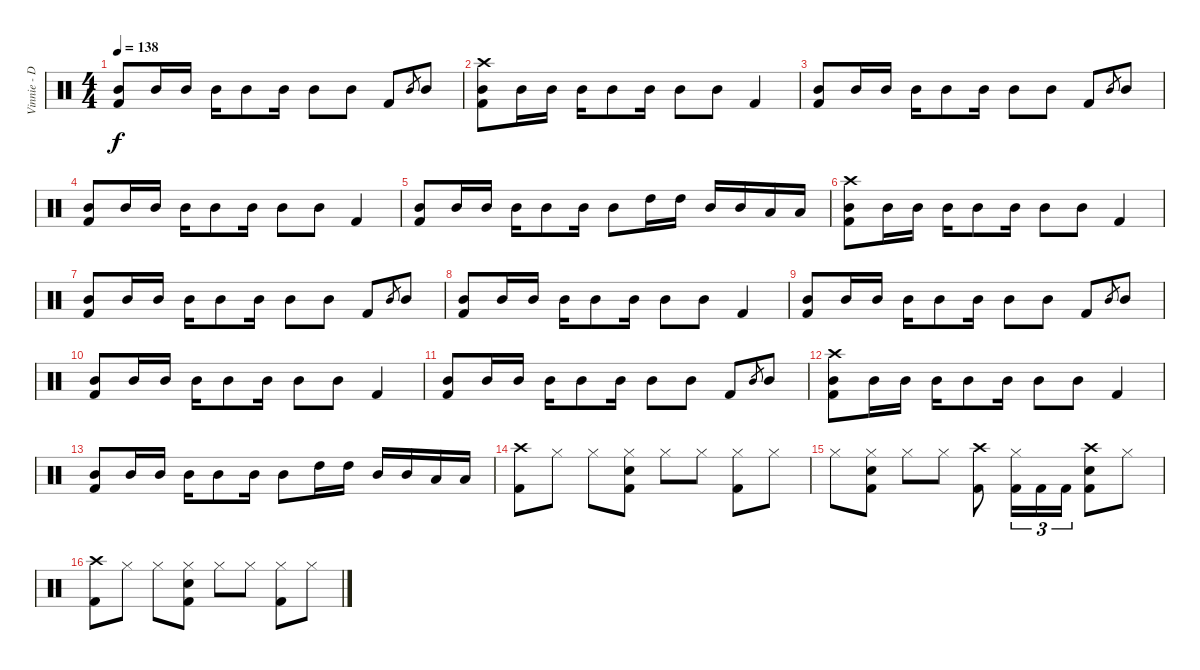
\track ("Vinnie - Drums" "Vinnie - D") {instrument percussion}
\staff {score}
\articulation defaults
\ts (4 4)
\tempo 138
\clef neutral
\ks c
("Mid Tom (hit)" "Kick (hit) 2").8{dy f} "Mid Tom (hit)".16 "Mid Tom (hit)".16 "Mid Tom (hit)".16 "Mid Tom (hit)".8 "Mid Tom (hit)".16 "Mid Tom (hit)".8 "Mid Tom (hit)".8 "Kick (hit) 2".8 "Mid Tom (hit)".8{gr} "Mid Tom (hit)".8 |
("Crash high (hit)" "Mid Tom (hit)" "Kick (hit) 2").8 "Mid Tom (hit)".16 "Mid Tom (hit)".16 "Mid Tom (hit)".16 "Mid Tom (hit)".8 "Mid Tom (hit)".16 "Mid Tom (hit)".8 "Mid Tom (hit)".8 "Kick (hit) 2".4 |
("Mid Tom (hit)" "Kick (hit) 2").8 "Mid Tom (hit)".16 "Mid Tom (hit)".16 "Mid Tom (hit)".16 "Mid Tom (hit)".8 "Mid Tom (hit)".16 "Mid Tom (hit)".8 "Mid Tom (hit)".8 "Kick (hit) 2".8 "Mid Tom (hit)".8{gr} "Mid Tom (hit)".8 |
("Mid Tom (hit)" "Kick (hit) 2").8 "Mid Tom (hit)".16 "Mid Tom (hit)".16 "Mid Tom (hit)".16 "Mid Tom (hit)".8 "Mid Tom (hit)".16 "Mid Tom (hit)".8 "Mid Tom (hit)".8 "Kick (hit) 2".4 |
("Mid Tom (hit)" "Kick (hit) 2").8 "Mid Tom (hit)".16 "Mid Tom (hit)".16 "Mid Tom (hit)".16 "Mid Tom (hit)".8 "Mid Tom (hit)".16 "Mid Tom (hit)".8 "High Tom (hit)".16 "High Tom (hit)".16 "Mid Tom (hit)".16 "Mid Tom (hit)".16 "Low Tom (hit)".16 "Low Tom (hit)".16 |
("Crash high (hit)" "Mid Tom (hit)" "Kick (hit) 2").8 "Mid Tom (hit)".16 "Mid Tom (hit)".16 "Mid Tom (hit)".16 "Mid Tom (hit)".8 "Mid Tom (hit)".16 "Mid Tom (hit)".8 "Mid Tom (hit)".8 "Kick (hit) 2".4 |
("Mid Tom (hit)" "Kick (hit) 2").8 "Mid Tom (hit)".16 "Mid Tom (hit)".16 "Mid Tom (hit)".16 "Mid Tom (hit)".8 "Mid Tom (hit)".16 "Mid Tom (hit)".8 "Mid Tom (hit)".8 "Kick (hit) 2".8 "Mid Tom (hit)".8{gr} "Mid Tom (hit)".8 |
("Mid Tom (hit)" "Kick (hit) 2").8 "Mid Tom (hit)".16 "Mid Tom (hit)".16 "Mid Tom (hit)".16 "Mid Tom (hit)".8 "Mid Tom (hit)".16 "Mid Tom (hit)".8 "Mid Tom (hit)".8 "Kick (hit) 2".4 |
("Mid Tom (hit)" "Kick (hit) 2").8 "Mid Tom (hit)".16 "Mid Tom (hit)".16 "Mid Tom (hit)".16 "Mid Tom (hit)".8 "Mid Tom (hit)".16 "Mid Tom (hit)".8 "Mid Tom (hit)".8 "Kick (hit) 2".8 "Mid Tom (hit)".8{gr} "Mid Tom (hit)".8 |
("Mid Tom (hit)" "Kick (hit) 2").8 "Mid Tom (hit)".16 "Mid Tom (hit)".16 "Mid Tom (hit)".16 "Mid Tom (hit)".8 "Mid Tom (hit)".16 "Mid Tom (hit)".8 "Mid Tom (hit)".8 "Kick (hit) 2".4 |
("Mid Tom (hit)" "Kick (hit) 2").8 "Mid Tom (hit)".16 "Mid Tom (hit)".16 "Mid Tom (hit)".16 "Mid Tom (hit)".8 "Mid Tom (hit)".16 "Mid Tom (hit)".8 "Mid Tom (hit)".8 "Kick (hit) 2".8 "Mid Tom (hit)".8{gr} "Mid Tom (hit)".8 |
("Crash high (hit)" "Mid Tom (hit)" "Kick (hit) 2").8 "Mid Tom (hit)".16 "Mid Tom (hit)".16 "Mid Tom (hit)".16 "Mid Tom (hit)".8 "Mid Tom (hit)".16 "Mid Tom (hit)".8 "Mid Tom (hit)".8 "Kick (hit) 2".4 |
("Mid Tom (hit)" "Kick (hit) 2").8 "Mid Tom (hit)".16 "Mid Tom (hit)".16 "Mid Tom (hit)".16 "Mid Tom (hit)".8 "Mid Tom (hit)".16 "Mid Tom (hit)".8 "High Tom (hit)".16 "High Tom (hit)".16 "Mid Tom (hit)".16 "Mid Tom (hit)".16 "Low Tom (hit)".16 "Low Tom (hit)".16 |
("Crash high (hit)" "Kick (hit) 2").8 "Hi-Hat (closed)".8 "Hi-Hat (closed)".8 ("Hi-Hat (closed)" "Electric Snare (hit)" "Kick (hit) 2").8 "Hi-Hat (closed)".8 "Hi-Hat (closed)".8 ("Hi-Hat (closed)" "Kick (hit) 2").8 "Hi-Hat (closed)".8 |
"Hi-Hat (closed)".8 ("Hi-Hat (closed)" "Electric Snare (hit)" "Kick (hit) 2").8 "Hi-Hat (closed)".8 "Hi-Hat (closed)".8 ("Crash high (hit)" "Kick (hit) 2").8 ("Hi-Hat (closed)" "Kick (hit) 2").16{tu (3 2)} "Kick (hit) 2".16{tu (3 2)} "Kick (hit) 2".16{tu (3 2)} ("Crash high (hit)" "Electric Snare (hit)" "Kick (hit) 2").8 "Hi-Hat (closed)".8 |
("Crash high (hit)" "Kick (hit) 2").8 "Hi-Hat (closed)".8 "Hi-Hat (closed)".8 ("Hi-Hat (closed)" "Electric Snare (hit)" "Kick (hit) 2").8 "Hi-Hat (closed)".8 "Hi-Hat (closed)".8 ("Hi-Hat (closed)" "Kick (hit) 2").8 "Hi-Hat (closed)".8
